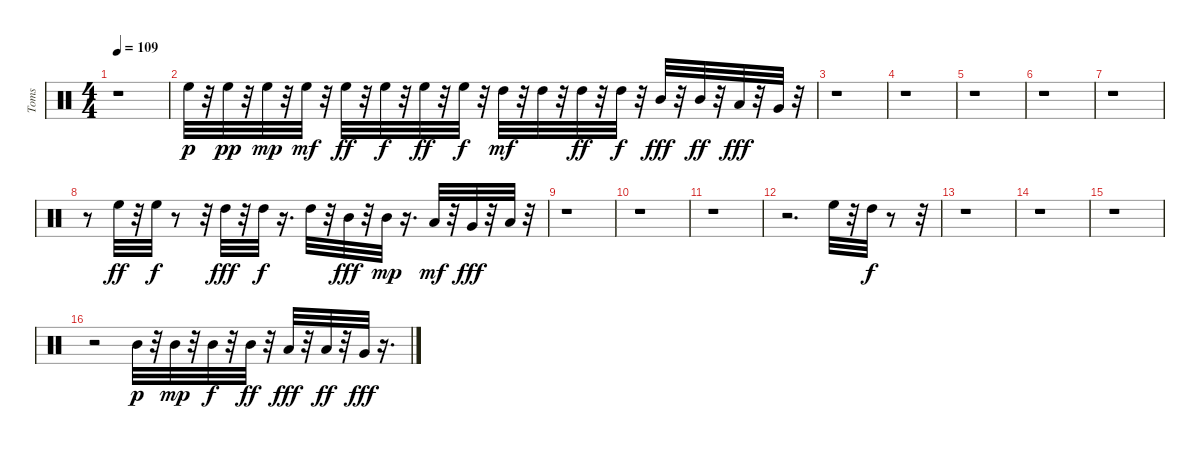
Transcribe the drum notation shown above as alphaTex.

\track ("Toms" "Toms") {instrument percussion}
\staff {score}
\articulation defaults
\ts (4 4)
\tempo 109
\clef neutral
\ks c
r.1{dy mf} |
"High Floor Tom (hit)".32{dy p} r.32 "High Floor Tom (hit)".32{dy pp} r.32 "High Floor Tom (hit)".32{dy mp} r.32 "High Floor Tom (hit)".32{dy mf} r.32 "High Floor Tom (hit)".32{dy ff} r.32 "High Floor Tom (hit)".32{dy f} r.32 "High Floor Tom (hit)".32{dy ff} r.32 "High Floor Tom (hit)".32{dy f} r.32 "High Tom (hit)".32{dy mf} r.32 "High Tom (hit)".32 r.32 "High Tom (hit)".32{dy ff} r.32 "High Tom (hit)".32{dy f} r.32 "Mid Tom (hit)".32{dy fff} r.32 "Mid Tom (hit)".32{dy ff} r.32 "Low Tom (hit)".32{dy fff} r.32 "Very Low Tom (hit)".32 r.32 |
r.1 |
r.1 |
r.1 |
r.1 |
r.1 |
r.8 "High Floor Tom (hit)".32{dy ff} r.32 "High Floor Tom (hit)".32{dy f} r.8 r.32 "High Tom (hit)".32{dy fff} r.32 "High Tom (hit)".32{dy f} r.16{d} "High Tom (hit)".32 r.32 "Mid Tom (hit)".32{dy fff} r.32 "Mid Tom (hit)".32{dy mp} r.16{d} "Low Tom (hit)".32{dy mf} r.32 "Very Low Tom (hit)".32{dy fff} r.32 "Low Floor Tom (hit)".32 r.32 |
r.1 |
r.1 |
r.1 |
r.2{d} "High Floor Tom (hit)".32 r.32 "High Tom (hit)".32{dy f} r.8 r.32 |
r.1 |
r.1 |
r.1 |
r.2 "Mid Tom (hit)".32{dy p} r.32 "Mid Tom (hit)".32{dy mp} r.32 "Mid Tom (hit)".32{dy f} r.32 "Mid Tom (hit)".32{dy ff} r.32 "Low Tom (hit)".32{dy fff} r.32 "Low Tom (hit)".32{dy ff} r.32 "Very Low Tom (hit)".32{dy fff} r.16{d}
